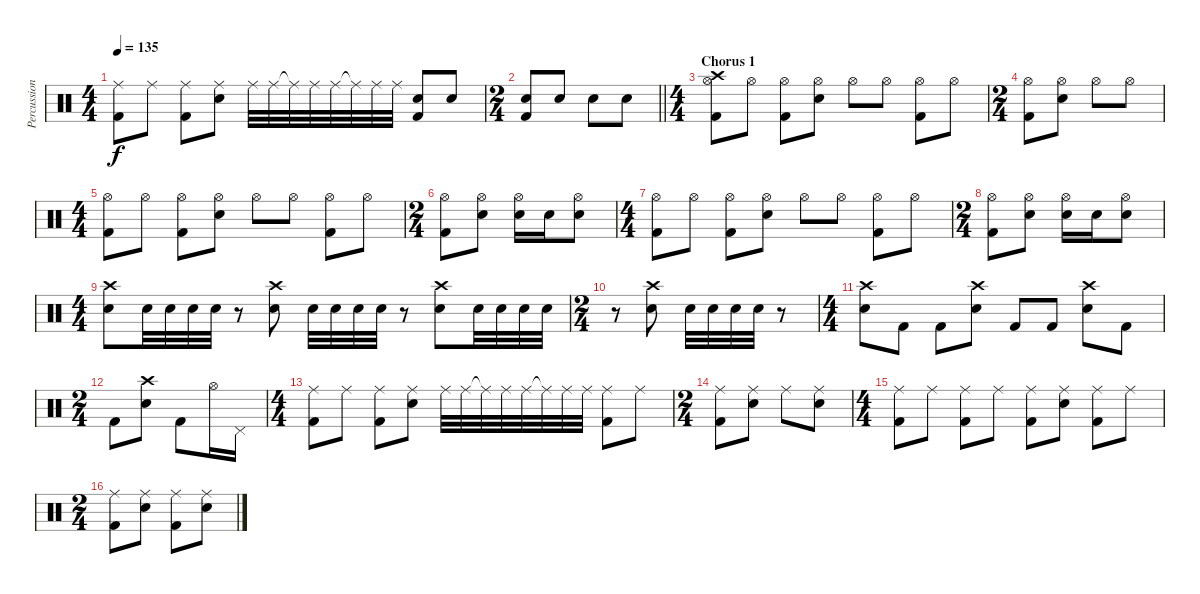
\track ("Percussion" "Percussion") {instrument percussion}
\staff {score}
\articulation defaults
\ts (4 4)
\tempo 135
\clef neutral
\ks c
("Ride (middle)" "Kick (hit) 2").8{dy f} "Ride (middle)".8 ("Ride (middle)" "Kick (hit) 2").8 ("Ride (middle)" "Electric Snare (hit)").8 "Ride (middle)".32 "Ride (middle)".32 "Ride (middle)"{t}.32 "Ride (middle)".32 "Ride (middle)".32 "Ride (middle)"{t}.32 "Ride (middle)".32 "Ride (middle)".32 ("Electric Snare (hit)" "Kick (hit) 2").8 "Electric Snare (hit)".8 |
\ts (2 4)
\barLineRight lightlight
("Electric Snare (hit)" "Kick (hit) 2").8 "Electric Snare (hit)".8 "Electric Snare (hit)".8 "Electric Snare (hit)".8 |
\ts (4 4)
\section ("" "Chorus 1")
("Crash high (hit)" "Hi-Hat (open)" "Kick (hit) 2").8 "Hi-Hat (open)".8 ("Hi-Hat (open)" "Kick (hit) 2").8 ("Hi-Hat (open)" "Electric Snare (hit)").8 "Hi-Hat (open)".8 "Hi-Hat (open)".8 ("Hi-Hat (open)" "Kick (hit) 2").8 "Hi-Hat (open)".8 |
\ts (2 4)
("Hi-Hat (open)" "Kick (hit) 2").8 ("Hi-Hat (open)" "Electric Snare (hit)").8 "Hi-Hat (open)".8 "Hi-Hat (open)".8 |
\ts (4 4)
("Hi-Hat (open)" "Kick (hit) 2").8 "Hi-Hat (open)".8 ("Hi-Hat (open)" "Kick (hit) 2").8 ("Hi-Hat (open)" "Electric Snare (hit)").8 "Hi-Hat (open)".8 "Hi-Hat (open)".8 ("Hi-Hat (open)" "Kick (hit) 2").8 "Hi-Hat (open)".8 |
\ts (2 4)
("Hi-Hat (open)" "Kick (hit) 2").8 ("Hi-Hat (open)" "Electric Snare (hit)").8 ("Hi-Hat (open)" "Electric Snare (hit)").16 "Electric Snare (hit)".16 ("Hi-Hat (open)" "Electric Snare (hit)").8 |
\ts (4 4)
("Hi-Hat (open)" "Kick (hit) 2").8 "Hi-Hat (open)".8 ("Hi-Hat (open)" "Kick (hit) 2").8 ("Hi-Hat (open)" "Electric Snare (hit)").8 "Hi-Hat (open)".8 "Hi-Hat (open)".8 ("Hi-Hat (open)" "Kick (hit) 2").8 "Hi-Hat (open)".8 |
\ts (2 4)
("Hi-Hat (open)" "Kick (hit) 2").8 ("Hi-Hat (open)" "Electric Snare (hit)").8 ("Hi-Hat (open)" "Electric Snare (hit)").16 "Electric Snare (hit)".16 ("Hi-Hat (open)" "Electric Snare (hit)").8 |
\ts (4 4)
("Crash high (hit)" "Electric Snare (hit)").8 "Electric Snare (hit)".32 "Electric Snare (hit)".32 "Electric Snare (hit)".32 "Electric Snare (hit)".32 r.8 ("Crash high (hit)" "Electric Snare (hit)").8 "Electric Snare (hit)".32 "Electric Snare (hit)".32 "Electric Snare (hit)".32 "Electric Snare (hit)".32 r.8 ("Crash high (hit)" "Electric Snare (hit)").8 "Electric Snare (hit)".32 "Electric Snare (hit)".32 "Electric Snare (hit)".32 "Electric Snare (hit)".32 |
\ts (2 4)
r.8 ("Crash high (hit)" "Electric Snare (hit)").8 "Electric Snare (hit)".32 "Electric Snare (hit)".32 "Electric Snare (hit)".32 "Electric Snare (hit)".32 r.8 |
\ts (4 4)
("Crash high (hit)" "Electric Snare (hit)").8 "Kick (hit) 2".8 "Kick (hit) 2".8 ("Crash high (hit)" "Electric Snare (hit)").8 "Kick (hit) 2".8 "Kick (hit) 2".8 ("Crash high (hit)" "Electric Snare (hit)").8 "Kick (hit) 2".8 |
\ts (2 4)
"Kick (hit) 2".8 ("Crash high (hit)" "Electric Snare (hit)").8 "Kick (hit) 2".8 "Hi-Hat (open)".16 "Pedal Hi-Hat (hit)".16 |
\ts (4 4)
("Ride (middle)" "Kick (hit) 2").8 "Ride (middle)".8 ("Ride (middle)" "Kick (hit) 2").8 ("Ride (middle)" "Electric Snare (hit)").8 "Ride (middle)".32 "Ride (middle)".32 "Ride (middle)"{t}.32 "Ride (middle)".32 "Ride (middle)".32 "Ride (middle)"{t}.32 "Ride (middle)".32 "Ride (middle)".32 ("Ride (middle)" "Kick (hit) 2").8 "Ride (middle)".8 |
\ts (2 4)
("Ride (middle)" "Kick (hit) 2").8 ("Ride (middle)" "Electric Snare (hit)").8 "Ride (middle)".8 ("Ride (middle)" "Electric Snare (hit)").8 |
\ts (4 4)
("Ride (middle)" "Kick (hit) 2").8 "Ride (middle)".8 ("Ride (middle)" "Kick (hit) 2").8 "Ride (middle)".8 ("Ride (middle)" "Kick (hit) 2").8 ("Ride (middle)" "Electric Snare (hit)").8 ("Ride (middle)" "Kick (hit) 2").8 "Ride (middle)".8 |
\ts (2 4)
("Ride (middle)" "Kick (hit) 2").8 ("Ride (middle)" "Electric Snare (hit)").8 ("Ride (middle)" "Kick (hit) 2").8 ("Ride (middle)" "Electric Snare (hit)").8
